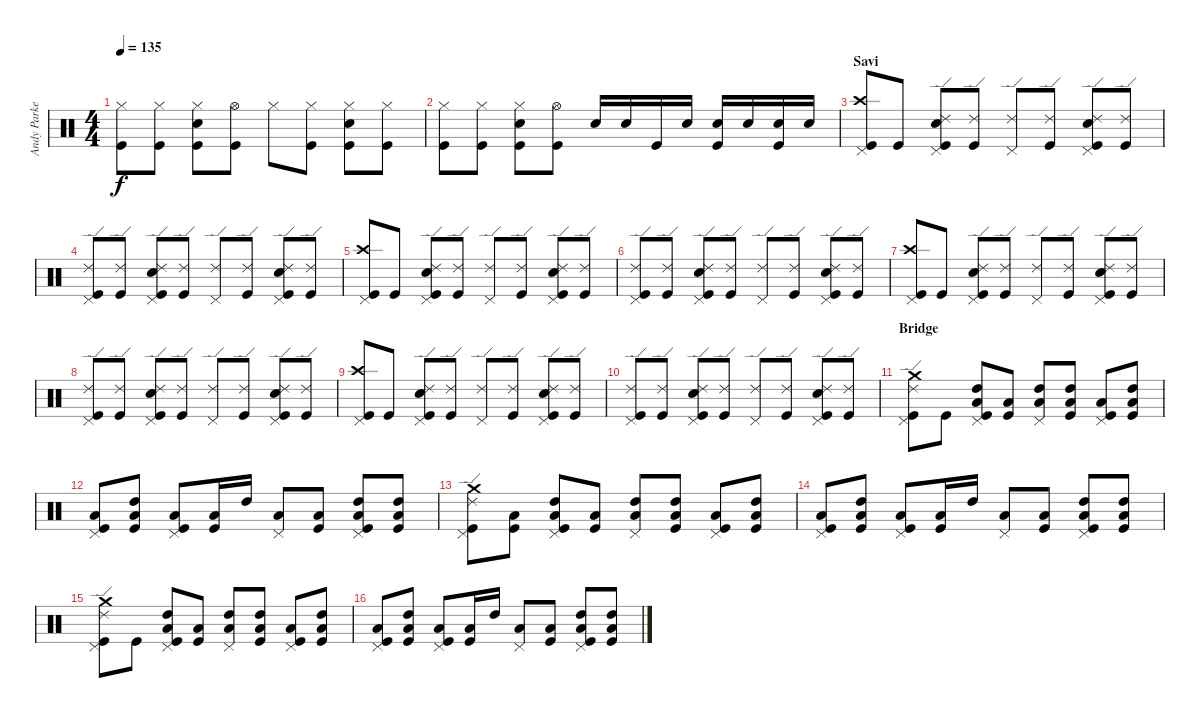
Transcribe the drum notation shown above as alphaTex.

\track ("Andy Parker" "Andy Parke") {instrument percussion}
\staff {score}
\articulation defaults
\ts (4 4)
\tempo 135
\clef neutral
\ks c
("Hi-Hat (closed)" "Kick (hit)").8{dy f} ("Hi-Hat (closed)" "Kick (hit)").8 ("Hi-Hat (closed)" "Snare (hit) 2" "Kick (hit)").8 ("Hi-Hat (open)" "Kick (hit)").8 "Hi-Hat (closed)".8 ("Hi-Hat (closed)" "Kick (hit)").8 ("Hi-Hat (closed)" "Snare (hit) 2" "Kick (hit)").8 ("Hi-Hat (closed)" "Kick (hit)").8 |
("Hi-Hat (closed)" "Kick (hit)").8 ("Hi-Hat (closed)" "Kick (hit)").8 ("Hi-Hat (closed)" "Snare (hit) 2" "Kick (hit)").8 ("Hi-Hat (open)" "Kick (hit)").8 "Snare (hit) 2".16 "Snare (hit) 2".16 "Kick (hit)".16 "Snare (hit) 2".16 ("Snare (hit) 2" "Kick (hit)").16 "Snare (hit) 2".16 ("Snare (hit) 2" "Kick (hit)").16 "Snare (hit) 2".16 |
\section ("" "Savi")
("Crash high (hit)" "Pedal Hi-Hat (hit)" "Kick (hit)").8 "Kick (hit)".8 ("Ride (edge) 2" "Snare (hit) 2" "Pedal Hi-Hat (hit)" "Kick (hit)").8 ("Ride (edge) 2" "Kick (hit)").8 ("Ride (edge) 2" "Pedal Hi-Hat (hit)").8 ("Ride (edge) 2" "Kick (hit)").8 ("Ride (edge) 2" "Snare (hit) 2" "Pedal Hi-Hat (hit)" "Kick (hit)").8 ("Ride (edge) 2" "Kick (hit)").8 |
("Ride (edge) 2" "Pedal Hi-Hat (hit)" "Kick (hit)").8 ("Ride (edge) 2" "Kick (hit)").8 ("Ride (edge) 2" "Snare (hit) 2" "Pedal Hi-Hat (hit)" "Kick (hit)").8 ("Ride (edge) 2" "Kick (hit)").8 ("Ride (edge) 2" "Pedal Hi-Hat (hit)").8 ("Ride (edge) 2" "Kick (hit)").8 ("Ride (edge) 2" "Snare (hit) 2" "Pedal Hi-Hat (hit)" "Kick (hit)").8 ("Ride (edge) 2" "Kick (hit)").8 |
("Crash high (hit)" "Pedal Hi-Hat (hit)" "Kick (hit)").8 "Kick (hit)".8 ("Ride (edge) 2" "Snare (hit) 2" "Pedal Hi-Hat (hit)" "Kick (hit)").8 ("Ride (edge) 2" "Kick (hit)").8 ("Ride (edge) 2" "Pedal Hi-Hat (hit)").8 ("Ride (edge) 2" "Kick (hit)").8 ("Ride (edge) 2" "Snare (hit) 2" "Pedal Hi-Hat (hit)" "Kick (hit)").8 ("Ride (edge) 2" "Kick (hit)").8 |
("Ride (edge) 2" "Pedal Hi-Hat (hit)" "Kick (hit)").8 ("Ride (edge) 2" "Kick (hit)").8 ("Ride (edge) 2" "Snare (hit) 2" "Pedal Hi-Hat (hit)" "Kick (hit)").8 ("Ride (edge) 2" "Kick (hit)").8 ("Ride (edge) 2" "Pedal Hi-Hat (hit)").8 ("Ride (edge) 2" "Kick (hit)").8 ("Ride (edge) 2" "Snare (hit) 2" "Pedal Hi-Hat (hit)" "Kick (hit)").8 ("Ride (edge) 2" "Kick (hit)").8 |
("Crash high (hit)" "Pedal Hi-Hat (hit)" "Kick (hit)").8 "Kick (hit)".8 ("Ride (edge) 2" "Snare (hit) 2" "Pedal Hi-Hat (hit)" "Kick (hit)").8 ("Ride (edge) 2" "Kick (hit)").8 ("Ride (edge) 2" "Pedal Hi-Hat (hit)").8 ("Ride (edge) 2" "Kick (hit)").8 ("Ride (edge) 2" "Snare (hit) 2" "Pedal Hi-Hat (hit)" "Kick (hit)").8 ("Ride (edge) 2" "Kick (hit)").8 |
("Ride (edge) 2" "Pedal Hi-Hat (hit)" "Kick (hit)").8 ("Ride (edge) 2" "Kick (hit)").8 ("Ride (edge) 2" "Snare (hit) 2" "Pedal Hi-Hat (hit)" "Kick (hit)").8 ("Ride (edge) 2" "Kick (hit)").8 ("Ride (edge) 2" "Pedal Hi-Hat (hit)").8 ("Ride (edge) 2" "Kick (hit)").8 ("Ride (edge) 2" "Snare (hit) 2" "Pedal Hi-Hat (hit)" "Kick (hit)").8 ("Ride (edge) 2" "Kick (hit)").8 |
("Crash high (hit)" "Pedal Hi-Hat (hit)" "Kick (hit)").8 "Kick (hit)".8 ("Ride (edge) 2" "Snare (hit) 2" "Pedal Hi-Hat (hit)" "Kick (hit)").8 ("Ride (edge) 2" "Kick (hit)").8 ("Ride (edge) 2" "Pedal Hi-Hat (hit)").8 ("Ride (edge) 2" "Kick (hit)").8 ("Ride (edge) 2" "Snare (hit) 2" "Pedal Hi-Hat (hit)" "Kick (hit)").8 ("Ride (edge) 2" "Kick (hit)").8 |
("Ride (edge) 2" "Pedal Hi-Hat (hit)" "Kick (hit)").8 ("Ride (edge) 2" "Kick (hit)").8 ("Ride (edge) 2" "Snare (hit) 2" "Pedal Hi-Hat (hit)" "Kick (hit)").8 ("Ride (edge) 2" "Kick (hit)").8 ("Ride (edge) 2" "Pedal Hi-Hat (hit)").8 ("Ride (edge) 2" "Kick (hit)").8 ("Ride (edge) 2" "Snare (hit) 2" "Pedal Hi-Hat (hit)" "Kick (hit)").8 ("Ride (edge) 2" "Kick (hit)").8 |
\section ("" "Bridge")
("Crash medium (hit)" "Ride (edge) 2" "Pedal Hi-Hat (hit)" "Kick (hit)").8 "Kick (hit)".8 ("High Tom (hit)" "Low Floor Tom (hit)" "Pedal Hi-Hat (hit)" "Kick (hit)").8 ("Low Floor Tom (hit)" "Kick (hit)").8 ("High Tom (hit)" "Low Floor Tom (hit)" "Pedal Hi-Hat (hit)").8 ("High Tom (hit)" "Low Floor Tom (hit)" "Kick (hit)").8 ("Low Floor Tom (hit)" "Pedal Hi-Hat (hit)" "Kick (hit)").8 ("High Tom (hit)" "Low Floor Tom (hit)" "Kick (hit)").8 |
("Low Floor Tom (hit)" "Pedal Hi-Hat (hit)" "Kick (hit)").8 ("High Tom (hit)" "Low Floor Tom (hit)" "Kick (hit)").8 ("Low Floor Tom (hit)" "Pedal Hi-Hat (hit)" "Kick (hit)").8 ("Low Floor Tom (hit)" "Kick (hit)").16 "High Tom (hit)".16 ("Low Floor Tom (hit)" "Pedal Hi-Hat (hit)").8 ("Low Floor Tom (hit)" "Kick (hit)").8 ("High Tom (hit)" "Low Floor Tom (hit)" "Pedal Hi-Hat (hit)" "Kick (hit)").8 ("High Tom (hit)" "Low Floor Tom (hit)" "Kick (hit)").8 |
("Crash medium (hit)" "Ride (edge) 2" "Pedal Hi-Hat (hit)" "Kick (hit)").8 ("Low Floor Tom (hit)" "Kick (hit)").8 ("High Tom (hit)" "Low Floor Tom (hit)" "Pedal Hi-Hat (hit)" "Kick (hit)").8 ("Low Floor Tom (hit)" "Kick (hit)").8 ("High Tom (hit)" "Low Floor Tom (hit)" "Pedal Hi-Hat (hit)").8 ("High Tom (hit)" "Low Floor Tom (hit)" "Kick (hit)").8 ("Low Floor Tom (hit)" "Pedal Hi-Hat (hit)" "Kick (hit)").8 ("High Tom (hit)" "Low Floor Tom (hit)" "Kick (hit)").8 |
("Low Floor Tom (hit)" "Pedal Hi-Hat (hit)" "Kick (hit)").8 ("High Tom (hit)" "Low Floor Tom (hit)" "Kick (hit)").8 ("Low Floor Tom (hit)" "Pedal Hi-Hat (hit)" "Kick (hit)").8 ("Low Floor Tom (hit)" "Kick (hit)").16 "High Tom (hit)".16 ("Low Floor Tom (hit)" "Pedal Hi-Hat (hit)").8 ("Low Floor Tom (hit)" "Kick (hit)").8 ("High Tom (hit)" "Low Floor Tom (hit)" "Pedal Hi-Hat (hit)" "Kick (hit)").8 ("High Tom (hit)" "Low Floor Tom (hit)" "Kick (hit)").8 |
("Crash medium (hit)" "Ride (edge) 2" "Pedal Hi-Hat (hit)" "Kick (hit)").8 "Kick (hit)".8 ("High Tom (hit)" "Low Floor Tom (hit)" "Pedal Hi-Hat (hit)" "Kick (hit)").8 ("Low Floor Tom (hit)" "Kick (hit)").8 ("High Tom (hit)" "Low Floor Tom (hit)" "Pedal Hi-Hat (hit)").8 ("High Tom (hit)" "Low Floor Tom (hit)" "Kick (hit)").8 ("Low Floor Tom (hit)" "Pedal Hi-Hat (hit)" "Kick (hit)").8 ("High Tom (hit)" "Low Floor Tom (hit)" "Kick (hit)").8 |
("Low Floor Tom (hit)" "Pedal Hi-Hat (hit)" "Kick (hit)").8 ("High Tom (hit)" "Low Floor Tom (hit)" "Kick (hit)").8 ("Low Floor Tom (hit)" "Pedal Hi-Hat (hit)" "Kick (hit)").8 ("Low Floor Tom (hit)" "Kick (hit)").16 "High Tom (hit)".16 ("Low Floor Tom (hit)" "Pedal Hi-Hat (hit)").8 ("Low Floor Tom (hit)" "Kick (hit)").8 ("High Tom (hit)" "Low Floor Tom (hit)" "Pedal Hi-Hat (hit)" "Kick (hit)").8 ("High Tom (hit)" "Low Floor Tom (hit)" "Kick (hit)").8
